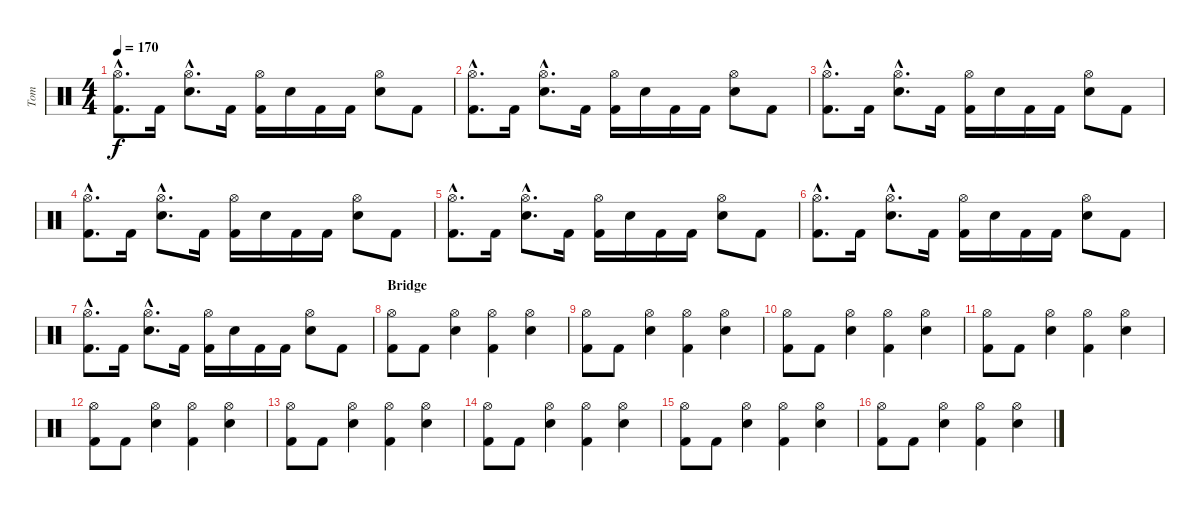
\track ("Tom" "Tom") {instrument percussion}
\staff {score}
\articulation defaults
\ts (4 4)
\tempo 170
\clef neutral
\ks c
("Hi-Hat (open)"{hac} "Kick (hit) 2"{hac}).8{d dy f} "Kick (hit) 2".16 ("Hi-Hat (open)"{hac} "Electric Snare (hit)"{hac}).8{d} "Kick (hit) 2".16 ("Hi-Hat (open)" "Kick (hit) 2").16 "Electric Snare (hit)".16 "Kick (hit) 2".16 "Kick (hit) 2".16 ("Hi-Hat (open)" "Electric Snare (hit)").8 "Kick (hit) 2".8 |
("Hi-Hat (open)"{hac} "Kick (hit) 2"{hac}).8{d} "Kick (hit) 2".16 ("Hi-Hat (open)"{hac} "Electric Snare (hit)"{hac}).8{d} "Kick (hit) 2".16 ("Hi-Hat (open)" "Kick (hit) 2").16 "Electric Snare (hit)".16 "Kick (hit) 2".16 "Kick (hit) 2".16 ("Hi-Hat (open)" "Electric Snare (hit)").8 "Kick (hit) 2".8 |
("Hi-Hat (open)"{hac} "Kick (hit) 2"{hac}).8{d} "Kick (hit) 2".16 ("Hi-Hat (open)"{hac} "Electric Snare (hit)"{hac}).8{d} "Kick (hit) 2".16 ("Hi-Hat (open)" "Kick (hit) 2").16 "Electric Snare (hit)".16 "Kick (hit) 2".16 "Kick (hit) 2".16 ("Hi-Hat (open)" "Electric Snare (hit)").8 "Kick (hit) 2".8 |
("Hi-Hat (open)"{hac} "Kick (hit) 2"{hac}).8{d} "Kick (hit) 2".16 ("Hi-Hat (open)"{hac} "Electric Snare (hit)"{hac}).8{d} "Kick (hit) 2".16 ("Hi-Hat (open)" "Kick (hit) 2").16 "Electric Snare (hit)".16 "Kick (hit) 2".16 "Kick (hit) 2".16 ("Hi-Hat (open)" "Electric Snare (hit)").8 "Kick (hit) 2".8 |
("Hi-Hat (open)"{hac} "Kick (hit) 2"{hac}).8{d} "Kick (hit) 2".16 ("Hi-Hat (open)"{hac} "Electric Snare (hit)"{hac}).8{d} "Kick (hit) 2".16 ("Hi-Hat (open)" "Kick (hit) 2").16 "Electric Snare (hit)".16 "Kick (hit) 2".16 "Kick (hit) 2".16 ("Hi-Hat (open)" "Electric Snare (hit)").8 "Kick (hit) 2".8 |
("Hi-Hat (open)"{hac} "Kick (hit) 2"{hac}).8{d} "Kick (hit) 2".16 ("Hi-Hat (open)"{hac} "Electric Snare (hit)"{hac}).8{d} "Kick (hit) 2".16 ("Hi-Hat (open)" "Kick (hit) 2").16 "Electric Snare (hit)".16 "Kick (hit) 2".16 "Kick (hit) 2".16 ("Hi-Hat (open)" "Electric Snare (hit)").8 "Kick (hit) 2".8 |
("Hi-Hat (open)"{hac} "Kick (hit) 2"{hac}).8{d} "Kick (hit) 2".16 ("Hi-Hat (open)"{hac} "Electric Snare (hit)"{hac}).8{d} "Kick (hit) 2".16 ("Hi-Hat (open)" "Kick (hit) 2").16 "Electric Snare (hit)".16 "Kick (hit) 2".16 "Kick (hit) 2".16 ("Hi-Hat (open)" "Electric Snare (hit)").8 "Kick (hit) 2".8 |
\section ("" "Bridge")
("Hi-Hat (open)" "Kick (hit) 2").8 "Kick (hit) 2".8 ("Hi-Hat (open)" "Snare (hit) 2").4 ("Hi-Hat (open)" "Kick (hit) 2").4 ("Hi-Hat (open)" "Snare (hit) 2").4 |
("Hi-Hat (open)" "Kick (hit) 2").8 "Kick (hit) 2".8 ("Hi-Hat (open)" "Snare (hit) 2").4 ("Hi-Hat (open)" "Kick (hit) 2").4 ("Hi-Hat (open)" "Snare (hit) 2").4 |
("Hi-Hat (open)" "Kick (hit) 2").8 "Kick (hit) 2".8 ("Hi-Hat (open)" "Snare (hit) 2").4 ("Hi-Hat (open)" "Kick (hit) 2").4 ("Hi-Hat (open)" "Snare (hit) 2").4 |
("Hi-Hat (open)" "Kick (hit) 2").8 "Kick (hit) 2".8 ("Hi-Hat (open)" "Snare (hit) 2").4 ("Hi-Hat (open)" "Kick (hit) 2").4 ("Hi-Hat (open)" "Snare (hit) 2").4 |
("Hi-Hat (open)" "Kick (hit) 2").8 "Kick (hit) 2".8 ("Hi-Hat (open)" "Snare (hit) 2").4 ("Hi-Hat (open)" "Kick (hit) 2").4 ("Hi-Hat (open)" "Snare (hit) 2").4 |
("Hi-Hat (open)" "Kick (hit) 2").8 "Kick (hit) 2".8 ("Hi-Hat (open)" "Snare (hit) 2").4 ("Hi-Hat (open)" "Kick (hit) 2").4 ("Hi-Hat (open)" "Snare (hit) 2").4 |
("Hi-Hat (open)" "Kick (hit) 2").8 "Kick (hit) 2".8 ("Hi-Hat (open)" "Snare (hit) 2").4 ("Hi-Hat (open)" "Kick (hit) 2").4 ("Hi-Hat (open)" "Snare (hit) 2").4 |
("Hi-Hat (open)" "Kick (hit) 2").8 "Kick (hit) 2".8 ("Hi-Hat (open)" "Snare (hit) 2").4 ("Hi-Hat (open)" "Kick (hit) 2").4 ("Hi-Hat (open)" "Snare (hit) 2").4 |
("Hi-Hat (open)" "Kick (hit) 2").8 "Kick (hit) 2".8 ("Hi-Hat (open)" "Snare (hit) 2").4 ("Hi-Hat (open)" "Kick (hit) 2").4 ("Hi-Hat (open)" "Snare (hit) 2").4
